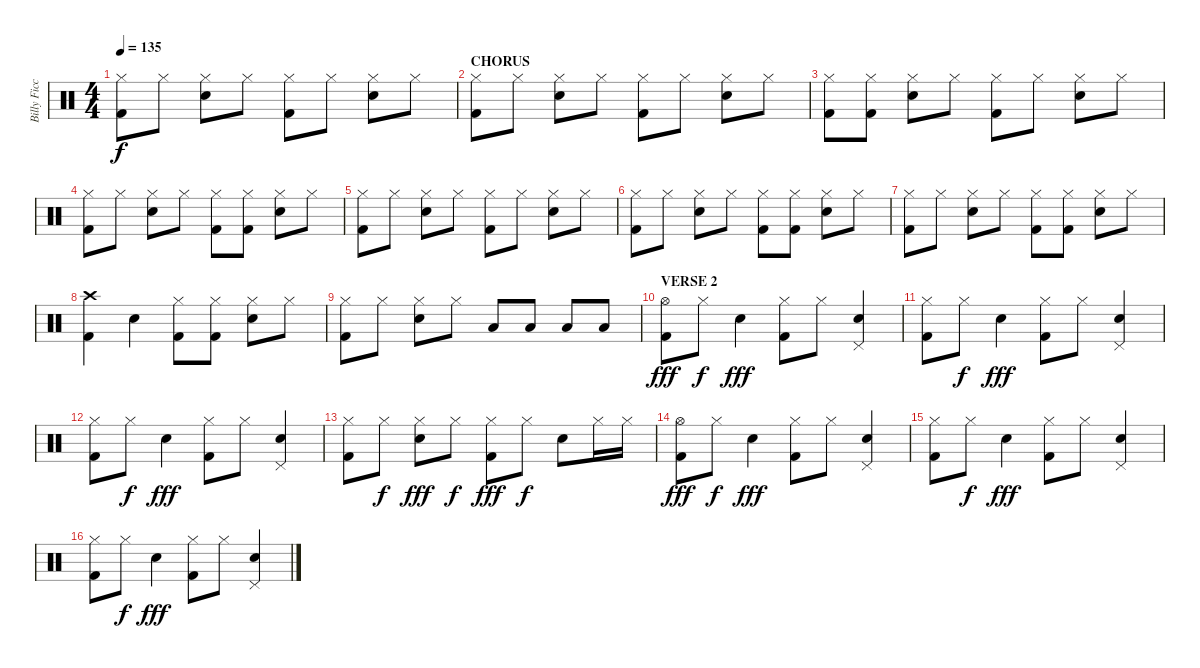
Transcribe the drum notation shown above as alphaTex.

\track ("Billy Ficca" "Billy Ficc") {instrument percussion}
\staff {score}
\articulation defaults
\ts (4 4)
\tempo 135
\clef neutral
\ks c
("Hi-Hat (closed)" "Kick (hit) 2").8{dy f} "Hi-Hat (closed)".8 ("Hi-Hat (closed)" "Electric Snare (hit)").8 "Hi-Hat (closed)".8 ("Hi-Hat (closed)" "Kick (hit) 2").8 "Hi-Hat (closed)".8 ("Hi-Hat (closed)" "Electric Snare (hit)").8 "Hi-Hat (closed)".8 |
\section ("" "CHORUS")
("Hi-Hat (closed)" "Kick (hit) 2").8 "Hi-Hat (closed)".8 ("Hi-Hat (closed)" "Electric Snare (hit)").8 "Hi-Hat (closed)".8 ("Hi-Hat (closed)" "Kick (hit) 2").8 "Hi-Hat (closed)".8 ("Hi-Hat (closed)" "Electric Snare (hit)").8 "Hi-Hat (closed)".8 |
("Hi-Hat (closed)" "Kick (hit) 2").8 ("Hi-Hat (closed)" "Kick (hit) 2").8 ("Hi-Hat (closed)" "Electric Snare (hit)").8 "Hi-Hat (closed)".8 ("Hi-Hat (closed)" "Kick (hit) 2").8 "Hi-Hat (closed)".8 ("Hi-Hat (closed)" "Electric Snare (hit)").8 "Hi-Hat (closed)".8 |
("Hi-Hat (closed)" "Kick (hit) 2").8 "Hi-Hat (closed)".8 ("Hi-Hat (closed)" "Electric Snare (hit)").8 "Hi-Hat (closed)".8 ("Hi-Hat (closed)" "Kick (hit) 2").8 ("Hi-Hat (closed)" "Kick (hit) 2").8 ("Hi-Hat (closed)" "Electric Snare (hit)").8 "Hi-Hat (closed)".8 |
("Hi-Hat (closed)" "Kick (hit) 2").8 "Hi-Hat (closed)".8 ("Hi-Hat (closed)" "Electric Snare (hit)").8 "Hi-Hat (closed)".8 ("Hi-Hat (closed)" "Kick (hit) 2").8 "Hi-Hat (closed)".8 ("Hi-Hat (closed)" "Electric Snare (hit)").8 "Hi-Hat (closed)".8 |
("Kick (hit) 2" "Hi-Hat (closed)").8 "Hi-Hat (closed)".8 ("Electric Snare (hit)" "Hi-Hat (closed)").8 "Hi-Hat (closed)".8 ("Kick (hit) 2" "Hi-Hat (closed)").8 ("Hi-Hat (closed)" "Kick (hit) 2").8 ("Electric Snare (hit)" "Hi-Hat (closed)").8 "Hi-Hat (closed)".8 |
("Kick (hit) 2" "Hi-Hat (closed)").8 "Hi-Hat (closed)".8 ("Electric Snare (hit)" "Hi-Hat (closed)").8 "Hi-Hat (closed)".8 ("Kick (hit) 2" "Hi-Hat (closed)").8 ("Hi-Hat (closed)" "Kick (hit) 2").8 ("Electric Snare (hit)" "Hi-Hat (closed)").8 "Hi-Hat (closed)".8 |
("Kick (hit) 2" "Crash high (hit)").4 "Electric Snare (hit)".4 ("Kick (hit) 2" "Hi-Hat (closed)").8 ("Kick (hit) 2" "Hi-Hat (closed)").8 ("Electric Snare (hit)" "Hi-Hat (closed)").8 "Hi-Hat (closed)".8 |
("Kick (hit) 2" "Hi-Hat (closed)").8 "Hi-Hat (closed)".8 ("Electric Snare (hit)" "Hi-Hat (closed)").8 "Hi-Hat (closed)".8 "Low Tom (hit)".8 "Low Tom (hit)".8 "Low Tom (hit)".8 "Low Tom (hit)".8 |
\section ("" "VERSE 2")
("Hi-Hat (open)" "Kick (hit) 2").8{dy fff} "Hi-Hat (closed)".8{dy f} "Electric Snare (hit)".4{dy fff} ("Hi-Hat (closed)" "Kick (hit) 2").8 "Hi-Hat (closed)".8 ("Electric Snare (hit)" "Pedal Hi-Hat (hit)").4 |
("Hi-Hat (closed)" "Kick (hit) 2").8 "Hi-Hat (closed)".8{dy f} "Electric Snare (hit)".4{dy fff} ("Hi-Hat (closed)" "Kick (hit) 2").8 "Hi-Hat (closed)".8 ("Electric Snare (hit)" "Pedal Hi-Hat (hit)").4 |
("Hi-Hat (closed)" "Kick (hit) 2").8 "Hi-Hat (closed)".8{dy f} "Electric Snare (hit)".4{dy fff} ("Hi-Hat (closed)" "Kick (hit) 2").8 "Hi-Hat (closed)".8 ("Electric Snare (hit)" "Pedal Hi-Hat (hit)").4 |
("Hi-Hat (closed)" "Kick (hit) 2").8 "Hi-Hat (closed)".8{dy f} ("Hi-Hat (closed)" "Electric Snare (hit)").8{dy fff} "Hi-Hat (closed)".8{dy f} ("Hi-Hat (closed)" "Kick (hit) 2").8{dy fff} "Hi-Hat (closed)".8{dy f} "Electric Snare (hit)".8 "Hi-Hat (closed)".16 "Hi-Hat (closed)".16 |
("Hi-Hat (open)" "Kick (hit) 2").8{dy fff} "Hi-Hat (closed)".8{dy f} "Electric Snare (hit)".4{dy fff} ("Hi-Hat (closed)" "Kick (hit) 2").8 "Hi-Hat (closed)".8 ("Electric Snare (hit)" "Pedal Hi-Hat (hit)").4 |
("Hi-Hat (closed)" "Kick (hit) 2").8 "Hi-Hat (closed)".8{dy f} "Electric Snare (hit)".4{dy fff} ("Hi-Hat (closed)" "Kick (hit) 2").8 "Hi-Hat (closed)".8 ("Electric Snare (hit)" "Pedal Hi-Hat (hit)").4 |
("Hi-Hat (closed)" "Kick (hit) 2").8 "Hi-Hat (closed)".8{dy f} "Electric Snare (hit)".4{dy fff} ("Hi-Hat (closed)" "Kick (hit) 2").8 "Hi-Hat (closed)".8 ("Electric Snare (hit)" "Pedal Hi-Hat (hit)").4
